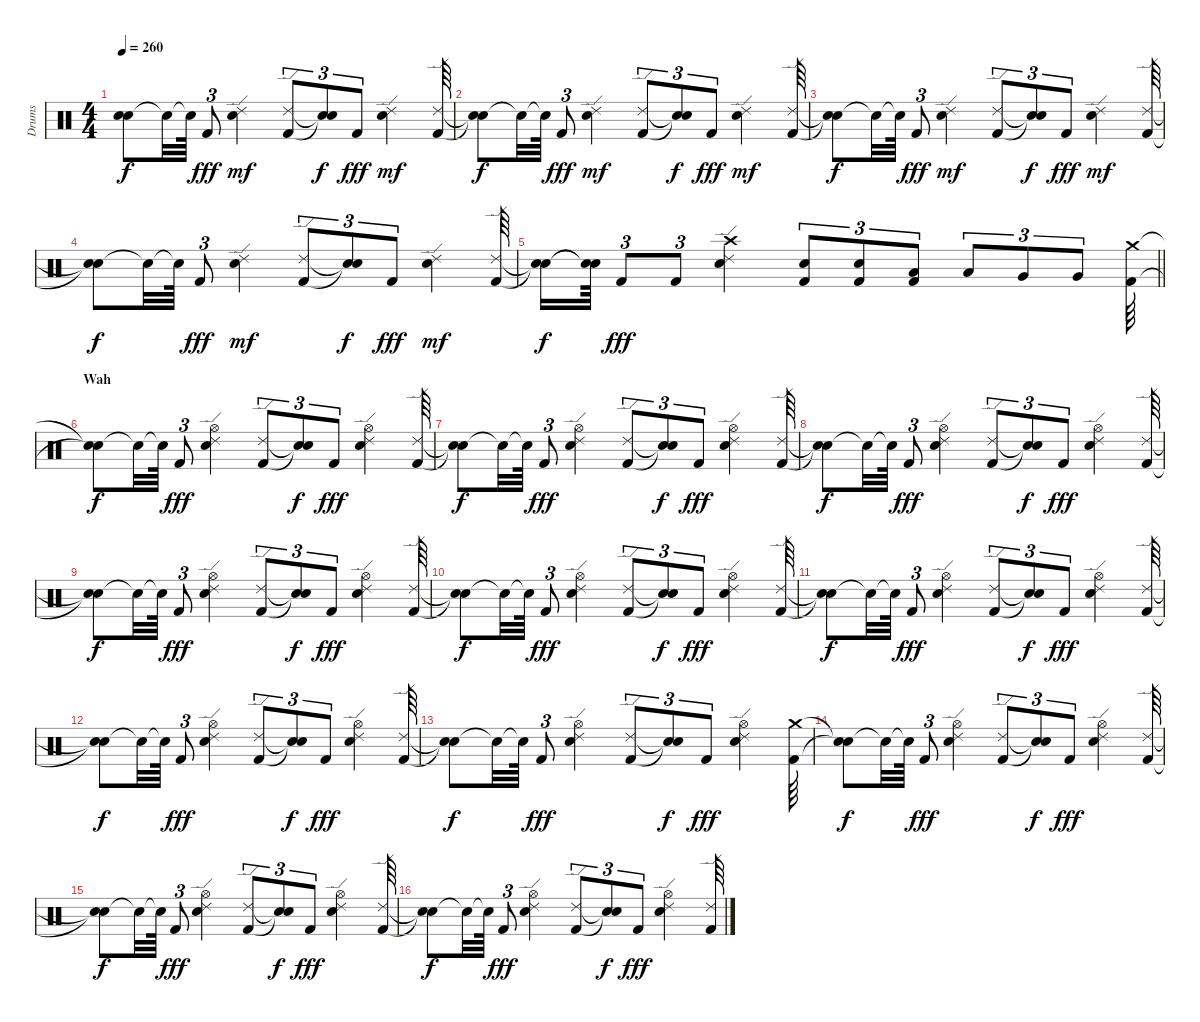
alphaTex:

\track ("Drums" "Drums") {instrument percussion}
\staff {score}
\articulation defaults
\ts (4 4)
\tempo 260
\clef neutral
\ks c
("Snare (hit)"{t} "Snare (hit)"{t}).8{dy f} "Snare (hit)"{t}.32 "Snare (hit)"{t}.64 "Kick (hit) 2".8{tu (3 2) dy fff} ("Electric Snare (hit)" "Ride (edge) 2").4{dy mf} ("Kick (hit) 2" "Ride (edge) 2").8{tu (3 2)} ("Snare (hit)"{t} "Snare (hit)"{t}).8{tu (3 2) dy f} "Kick (hit) 2".8{tu (3 2) dy fff} ("Electric Snare (hit)" "Ride (edge) 2").4{dy mf} ("Kick (hit) 2" "Ride (edge) 2").64 |
("Snare (hit)"{t} "Snare (hit)"{t}).8{dy f} "Snare (hit)"{t}.32 "Snare (hit)"{t}.64 "Kick (hit) 2".8{tu (3 2) dy fff} ("Electric Snare (hit)" "Ride (edge) 2").4{dy mf} ("Kick (hit) 2" "Ride (edge) 2").8{tu (3 2)} ("Snare (hit)"{t} "Snare (hit)"{t}).8{tu (3 2) dy f} "Kick (hit) 2".8{tu (3 2) dy fff} ("Electric Snare (hit)" "Ride (edge) 2").4{dy mf} ("Kick (hit) 2" "Ride (edge) 2").64 |
("Snare (hit)"{t} "Snare (hit)"{t}).8{dy f} "Snare (hit)"{t}.32 "Snare (hit)"{t}.64 "Kick (hit) 2".8{tu (3 2) dy fff} ("Electric Snare (hit)" "Ride (edge) 2").4{dy mf} ("Kick (hit) 2" "Ride (edge) 2").8{tu (3 2)} ("Snare (hit)"{t} "Snare (hit)"{t}).8{tu (3 2) dy f} "Kick (hit) 2".8{tu (3 2) dy fff} ("Electric Snare (hit)" "Ride (edge) 2").4{dy mf} ("Kick (hit) 2" "Ride (edge) 2").64 |
("Snare (hit)"{t} "Snare (hit)"{t}).8{dy f} "Snare (hit)"{t}.32 "Snare (hit)"{t}.64 "Kick (hit) 2".8{tu (3 2) dy fff} ("Electric Snare (hit)" "Ride (edge) 2").4{dy mf} ("Kick (hit) 2" "Ride (edge) 2").8{tu (3 2)} ("Snare (hit)"{t} "Snare (hit)"{t}).8{tu (3 2) dy f} "Kick (hit) 2".8{tu (3 2) dy fff} ("Electric Snare (hit)" "Ride (edge) 2").4{dy mf} ("Kick (hit) 2" "Ride (edge) 2").64 |
\barLineRight lightlight
("Snare (hit)"{t} "Snare (hit)"{t}).16{dy f} ("Snare (hit)"{t} "Snare (hit)"{t}).64 "Kick (hit) 2".8{tu (3 2) dy fff} "Kick (hit) 2".8{tu (3 2)} ("Electric Snare (hit)" "Ride (edge) 2" "Crash high (hit)").4 ("Kick (hit) 2" "Electric Snare (hit)").8{tu (3 2)} ("Kick (hit) 2" "Electric Snare (hit)").8{tu (3 2)} ("Kick (hit) 2" "Low Tom (hit)").8{tu (3 2)} "Low Tom (hit)".8{tu (3 2)} "Very Low Tom (hit)".8{tu (3 2)} "Very Low Tom (hit)".8{tu (3 2)} ("Kick (hit) 2" "Crash medium (hit)").64 |
\section ("" "Wah")
("Snare (hit)"{t} "Snare (hit)"{t}).8{dy f} "Snare (hit)"{t}.32 "Snare (hit)"{t}.64 "Kick (hit) 2".8{tu (3 2) dy fff} ("Electric Snare (hit)" "Ride (edge) 2" "Hi-Hat (open)").4 ("Kick (hit) 2" "Ride (edge) 2").8{tu (3 2)} ("Snare (hit)"{t} "Snare (hit)"{t}).8{tu (3 2) dy f} "Kick (hit) 2".8{tu (3 2) dy fff} ("Electric Snare (hit)" "Ride (edge) 2" "Hi-Hat (open)").4 ("Kick (hit) 2" "Ride (edge) 2").64 |
("Snare (hit)"{t} "Snare (hit)"{t}).8{dy f} "Snare (hit)"{t}.32 "Snare (hit)"{t}.64 "Kick (hit) 2".8{tu (3 2) dy fff} ("Electric Snare (hit)" "Ride (edge) 2" "Hi-Hat (open)").4 ("Kick (hit) 2" "Ride (edge) 2").8{tu (3 2)} ("Snare (hit)"{t} "Snare (hit)"{t}).8{tu (3 2) dy f} "Kick (hit) 2".8{tu (3 2) dy fff} ("Electric Snare (hit)" "Ride (edge) 2" "Hi-Hat (open)").4 ("Kick (hit) 2" "Ride (edge) 2").64 |
("Snare (hit)"{t} "Snare (hit)"{t}).8{dy f} "Snare (hit)"{t}.32 "Snare (hit)"{t}.64 "Kick (hit) 2".8{tu (3 2) dy fff} ("Electric Snare (hit)" "Ride (edge) 2" "Hi-Hat (open)").4 ("Kick (hit) 2" "Ride (edge) 2").8{tu (3 2)} ("Snare (hit)"{t} "Snare (hit)"{t}).8{tu (3 2) dy f} "Kick (hit) 2".8{tu (3 2) dy fff} ("Electric Snare (hit)" "Ride (edge) 2" "Hi-Hat (open)").4 ("Kick (hit) 2" "Ride (edge) 2").64 |
("Snare (hit)"{t} "Snare (hit)"{t}).8{dy f} "Snare (hit)"{t}.32 "Snare (hit)"{t}.64 "Kick (hit) 2".8{tu (3 2) dy fff} ("Electric Snare (hit)" "Ride (edge) 2" "Hi-Hat (open)").4 ("Kick (hit) 2" "Ride (edge) 2").8{tu (3 2)} ("Snare (hit)"{t} "Snare (hit)"{t}).8{tu (3 2) dy f} "Kick (hit) 2".8{tu (3 2) dy fff} ("Electric Snare (hit)" "Ride (edge) 2" "Hi-Hat (open)").4 ("Kick (hit) 2" "Ride (edge) 2").64 |
("Snare (hit)"{t} "Snare (hit)"{t}).8{dy f} "Snare (hit)"{t}.32 "Snare (hit)"{t}.64 "Kick (hit) 2".8{tu (3 2) dy fff} ("Electric Snare (hit)" "Ride (edge) 2" "Hi-Hat (open)").4 ("Kick (hit) 2" "Ride (edge) 2").8{tu (3 2)} ("Snare (hit)"{t} "Snare (hit)"{t}).8{tu (3 2) dy f} "Kick (hit) 2".8{tu (3 2) dy fff} ("Electric Snare (hit)" "Ride (edge) 2" "Hi-Hat (open)").4 ("Kick (hit) 2" "Ride (edge) 2").64 |
("Snare (hit)"{t} "Snare (hit)"{t}).8{dy f} "Snare (hit)"{t}.32 "Snare (hit)"{t}.64 "Kick (hit) 2".8{tu (3 2) dy fff} ("Electric Snare (hit)" "Ride (edge) 2" "Hi-Hat (open)").4 ("Kick (hit) 2" "Ride (edge) 2").8{tu (3 2)} ("Snare (hit)"{t} "Snare (hit)"{t}).8{tu (3 2) dy f} "Kick (hit) 2".8{tu (3 2) dy fff} ("Electric Snare (hit)" "Ride (edge) 2" "Hi-Hat (open)").4 ("Kick (hit) 2" "Ride (edge) 2").64 |
("Snare (hit)"{t} "Snare (hit)"{t}).8{dy f} "Snare (hit)"{t}.32 "Snare (hit)"{t}.64 "Kick (hit) 2".8{tu (3 2) dy fff} ("Electric Snare (hit)" "Ride (edge) 2" "Hi-Hat (open)").4 ("Kick (hit) 2" "Ride (edge) 2").8{tu (3 2)} ("Snare (hit)"{t} "Snare (hit)"{t}).8{tu (3 2) dy f} "Kick (hit) 2".8{tu (3 2) dy fff} ("Electric Snare (hit)" "Ride (edge) 2" "Hi-Hat (open)").4 ("Kick (hit) 2" "Ride (edge) 2").64 |
("Snare (hit)"{t} "Snare (hit)"{t}).8{dy f} "Snare (hit)"{t}.32 "Snare (hit)"{t}.64 "Kick (hit) 2".8{tu (3 2) dy fff} ("Electric Snare (hit)" "Ride (edge) 2" "Hi-Hat (open)").4 ("Kick (hit) 2" "Ride (edge) 2").8{tu (3 2)} ("Snare (hit)"{t} "Snare (hit)"{t}).8{tu (3 2) dy f} "Kick (hit) 2".8{tu (3 2) dy fff} ("Electric Snare (hit)" "Ride (edge) 2" "Hi-Hat (open)").4 ("Kick (hit) 2" "Crash medium (hit)").64 |
("Snare (hit)"{t} "Snare (hit)"{t}).8{dy f} "Snare (hit)"{t}.32 "Snare (hit)"{t}.64 "Kick (hit) 2".8{tu (3 2) dy fff} ("Electric Snare (hit)" "Ride (edge) 2" "Hi-Hat (open)").4 ("Kick (hit) 2" "Ride (edge) 2").8{tu (3 2)} ("Snare (hit)"{t} "Snare (hit)"{t}).8{tu (3 2) dy f} "Kick (hit) 2".8{tu (3 2) dy fff} ("Electric Snare (hit)" "Ride (edge) 2" "Hi-Hat (open)").4 ("Kick (hit) 2" "Ride (edge) 2").64 |
("Snare (hit)"{t} "Snare (hit)"{t}).8{dy f} "Snare (hit)"{t}.32 "Snare (hit)"{t}.64 "Kick (hit) 2".8{tu (3 2) dy fff} ("Electric Snare (hit)" "Ride (edge) 2" "Hi-Hat (open)").4 ("Kick (hit) 2" "Ride (edge) 2").8{tu (3 2)} ("Snare (hit)"{t} "Snare (hit)"{t}).8{tu (3 2) dy f} "Kick (hit) 2".8{tu (3 2) dy fff} ("Electric Snare (hit)" "Ride (edge) 2" "Hi-Hat (open)").4 ("Kick (hit) 2" "Ride (edge) 2").64 |
("Snare (hit)"{t} "Snare (hit)"{t}).8{dy f} "Snare (hit)"{t}.32 "Snare (hit)"{t}.64 "Kick (hit) 2".8{tu (3 2) dy fff} ("Electric Snare (hit)" "Ride (edge) 2" "Hi-Hat (open)").4 ("Kick (hit) 2" "Ride (edge) 2").8{tu (3 2)} ("Snare (hit)"{t} "Snare (hit)"{t}).8{tu (3 2) dy f} "Kick (hit) 2".8{tu (3 2) dy fff} ("Electric Snare (hit)" "Ride (edge) 2" "Hi-Hat (open)").4 ("Kick (hit) 2" "Ride (edge) 2").64
